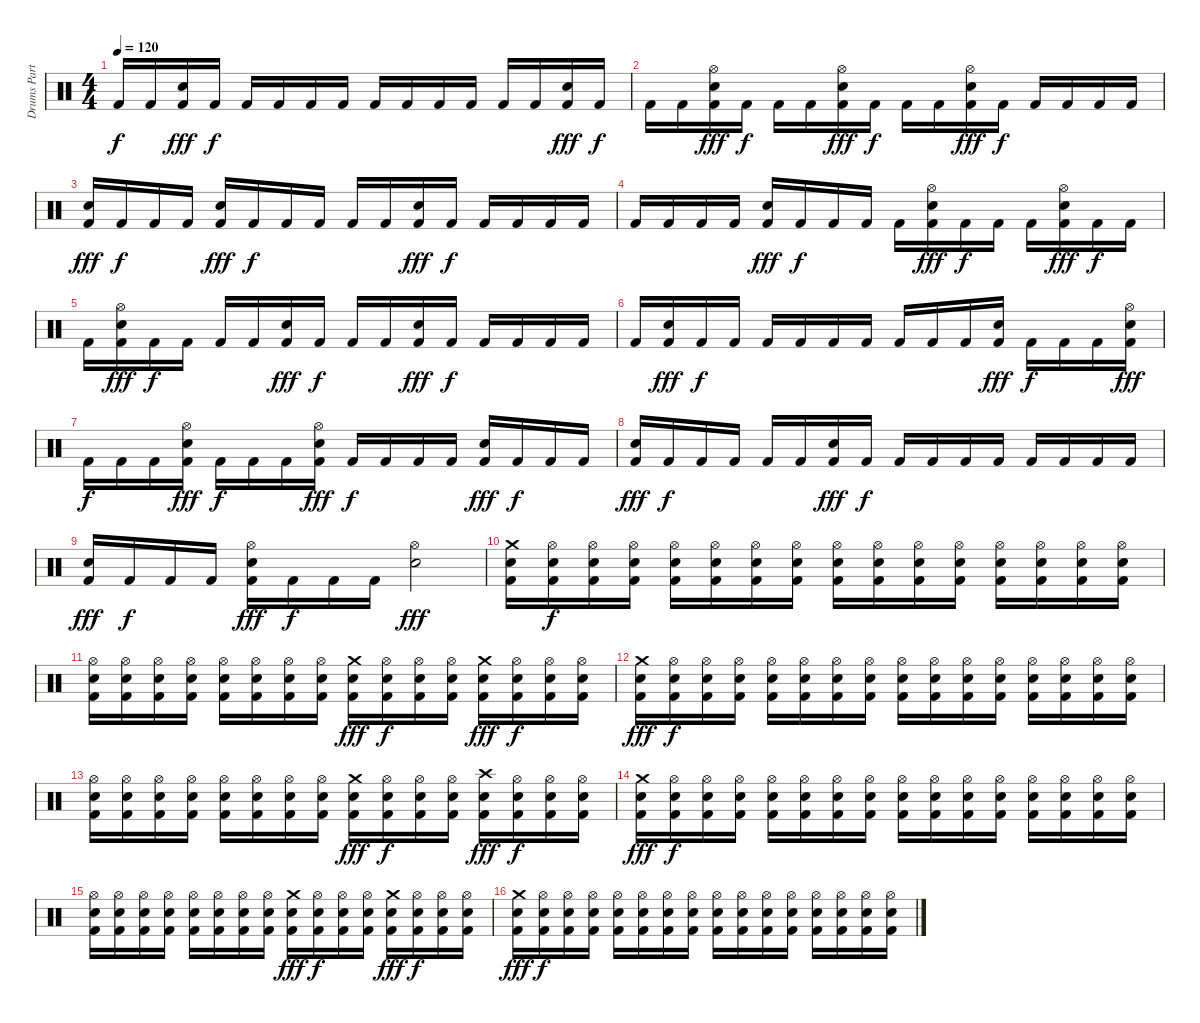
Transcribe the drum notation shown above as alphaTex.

\track ("Drums Part" "Drums Part") {instrument percussion}
\staff {score}
\articulation defaults
\ts (4 4)
\tempo 120
\clef neutral
\ks c "Kick (hit) 2".16{dy f} "Kick (hit) 2".16
("Electric Snare (hit)" "Kick (hit) 2").16{dy fff} "Kick (hit) 2".16{dy f} "Kick (hit) 2".16 "Kick (hit) 2".16 "Kick (hit) 2".16 "Kick (hit) 2".16 "Kick (hit) 2".16 "Kick (hit) 2".16 "Kick (hit) 2".16 "Kick (hit) 2".16 "Kick (hit) 2".16 "Kick (hit) 2".16 ("Electric Snare (hit)" "Kick (hit) 2").16{dy fff} "Kick (hit) 2".16{dy f} |
"Kick (hit) 2".16 "Kick (hit) 2".16 ("Hi-Hat (open)" "Electric Snare (hit)" "Kick (hit) 2").16{dy fff} "Kick (hit) 2".16{dy f} "Kick (hit) 2".16 "Kick (hit) 2".16 ("Hi-Hat (open)" "Electric Snare (hit)" "Kick (hit) 2").16{dy fff} "Kick (hit) 2".16{dy f} "Kick (hit) 2".16 "Kick (hit) 2".16 ("Hi-Hat (open)" "Electric Snare (hit)" "Kick (hit) 2").16{dy fff} "Kick (hit) 2".16{dy f} "Kick (hit) 2".16 "Kick (hit) 2".16 "Kick (hit) 2".16 "Kick (hit) 2".16 |
("Electric Snare (hit)" "Kick (hit) 2").16{dy fff} "Kick (hit) 2".16{dy f} "Kick (hit) 2".16 "Kick (hit) 2".16 ("Electric Snare (hit)" "Kick (hit) 2").16{dy fff} "Kick (hit) 2".16{dy f} "Kick (hit) 2".16 "Kick (hit) 2".16 "Kick (hit) 2".16 "Kick (hit) 2".16 ("Electric Snare (hit)" "Kick (hit) 2").16{dy fff} "Kick (hit) 2".16{dy f} "Kick (hit) 2".16 "Kick (hit) 2".16 "Kick (hit) 2".16 "Kick (hit) 2".16 |
"Kick (hit) 2".16 "Kick (hit) 2".16 "Kick (hit) 2".16 "Kick (hit) 2".16 ("Electric Snare (hit)" "Kick (hit) 2").16{dy fff} "Kick (hit) 2".16{dy f} "Kick (hit) 2".16 "Kick (hit) 2".16 "Kick (hit) 2".16 ("Hi-Hat (open)" "Electric Snare (hit)" "Kick (hit) 2").16{dy fff} "Kick (hit) 2".16{dy f} "Kick (hit) 2".16 "Kick (hit) 2".16 ("Hi-Hat (open)" "Electric Snare (hit)" "Kick (hit) 2").16{dy fff} "Kick (hit) 2".16{dy f} "Kick (hit) 2".16 |
"Kick (hit) 2".16 ("Hi-Hat (open)" "Electric Snare (hit)" "Kick (hit) 2").16{dy fff} "Kick (hit) 2".16{dy f} "Kick (hit) 2".16 "Kick (hit) 2".16 "Kick (hit) 2".16 ("Electric Snare (hit)" "Kick (hit) 2").16{dy fff} "Kick (hit) 2".16{dy f} "Kick (hit) 2".16 "Kick (hit) 2".16 ("Electric Snare (hit)" "Kick (hit) 2").16{dy fff} "Kick (hit) 2".16{dy f} "Kick (hit) 2".16 "Kick (hit) 2".16 "Kick (hit) 2".16 "Kick (hit) 2".16 |
"Kick (hit) 2".16 ("Electric Snare (hit)" "Kick (hit) 2").16{dy fff} "Kick (hit) 2".16{dy f} "Kick (hit) 2".16 "Kick (hit) 2".16 "Kick (hit) 2".16 "Kick (hit) 2".16 "Kick (hit) 2".16 "Kick (hit) 2".16 "Kick (hit) 2".16 "Kick (hit) 2".16 ("Electric Snare (hit)" "Kick (hit) 2").16{dy fff} "Kick (hit) 2".16{dy f} "Kick (hit) 2".16 "Kick (hit) 2".16 ("Hi-Hat (open)" "Electric Snare (hit)" "Kick (hit) 2").16{dy fff} |
"Kick (hit) 2".16{dy f} "Kick (hit) 2".16 "Kick (hit) 2".16 ("Hi-Hat (open)" "Electric Snare (hit)" "Kick (hit) 2").16{dy fff} "Kick (hit) 2".16{dy f} "Kick (hit) 2".16 "Kick (hit) 2".16 ("Hi-Hat (open)" "Electric Snare (hit)" "Kick (hit) 2").16{dy fff} "Kick (hit) 2".16{dy f} "Kick (hit) 2".16 "Kick (hit) 2".16 "Kick (hit) 2".16 ("Electric Snare (hit)" "Kick (hit) 2").16{dy fff} "Kick (hit) 2".16{dy f} "Kick (hit) 2".16 "Kick (hit) 2".16 |
("Electric Snare (hit)" "Kick (hit) 2").16{dy fff} "Kick (hit) 2".16{dy f} "Kick (hit) 2".16 "Kick (hit) 2".16 "Kick (hit) 2".16 "Kick (hit) 2".16 ("Electric Snare (hit)" "Kick (hit) 2").16{dy fff} "Kick (hit) 2".16{dy f} "Kick (hit) 2".16 "Kick (hit) 2".16 "Kick (hit) 2".16 "Kick (hit) 2".16 "Kick (hit) 2".16 "Kick (hit) 2".16 "Kick (hit) 2".16 "Kick (hit) 2".16 |
("Electric Snare (hit)" "Kick (hit) 2").16{dy fff} "Kick (hit) 2".16{dy f} "Kick (hit) 2".16 "Kick (hit) 2".16 ("Hi-Hat (open)" "Electric Snare (hit)" "Kick (hit) 2").16{dy fff} "Kick (hit) 2".16{dy f} "Kick (hit) 2".16 "Kick (hit) 2".16 ("Hi-Hat (open)" "Electric Snare (hit)").2{dy fff} |
("Crash medium (hit)" "Electric Snare (hit)" "Kick (hit) 2").16 ("Hi-Hat (open)" "Electric Snare (hit)" "Kick (hit) 2").16{dy f} ("Hi-Hat (open)" "Electric Snare (hit)" "Kick (hit) 2").16 ("Hi-Hat (open)" "Electric Snare (hit)" "Kick (hit) 2").16 ("Hi-Hat (open)" "Electric Snare (hit)" "Kick (hit) 2").16 ("Hi-Hat (open)" "Electric Snare (hit)" "Kick (hit) 2").16 ("Hi-Hat (open)" "Electric Snare (hit)" "Kick (hit) 2").16 ("Hi-Hat (open)" "Electric Snare (hit)" "Kick (hit) 2").16 ("Hi-Hat (open)" "Electric Snare (hit)" "Kick (hit) 2").16 ("Hi-Hat (open)" "Electric Snare (hit)" "Kick (hit) 2").16 ("Hi-Hat (open)" "Electric Snare (hit)" "Kick (hit) 2").16 ("Hi-Hat (open)" "Electric Snare (hit)" "Kick (hit) 2").16 ("Hi-Hat (open)" "Electric Snare (hit)" "Kick (hit) 2").16 ("Hi-Hat (open)" "Electric Snare (hit)" "Kick (hit) 2").16 ("Hi-Hat (open)" "Electric Snare (hit)" "Kick (hit) 2").16 ("Hi-Hat (open)" "Electric Snare (hit)" "Kick (hit) 2").16 |
("Hi-Hat (open)" "Electric Snare (hit)" "Kick (hit) 2").16 ("Hi-Hat (open)" "Electric Snare (hit)" "Kick (hit) 2").16 ("Hi-Hat (open)" "Electric Snare (hit)" "Kick (hit) 2").16 ("Hi-Hat (open)" "Electric Snare (hit)" "Kick (hit) 2").16 ("Hi-Hat (open)" "Electric Snare (hit)" "Kick (hit) 2").16 ("Hi-Hat (open)" "Electric Snare (hit)" "Kick (hit) 2").16 ("Hi-Hat (open)" "Electric Snare (hit)" "Kick (hit) 2").16 ("Hi-Hat (open)" "Electric Snare (hit)" "Kick (hit) 2").16 ("Crash medium (hit)" "Electric Snare (hit)" "Kick (hit) 2").16{dy fff} ("Hi-Hat (open)" "Electric Snare (hit)" "Kick (hit) 2").16{dy f} ("Hi-Hat (open)" "Electric Snare (hit)" "Kick (hit) 2").16 ("Hi-Hat (open)" "Electric Snare (hit)" "Kick (hit) 2").16 ("Crash medium (hit)" "Electric Snare (hit)" "Kick (hit) 2").16{dy fff} ("Hi-Hat (open)" "Electric Snare (hit)" "Kick (hit) 2").16{dy f} ("Hi-Hat (open)" "Electric Snare (hit)" "Kick (hit) 2").16 ("Hi-Hat (open)" "Electric Snare (hit)" "Kick (hit) 2").16 |
("Crash medium (hit)" "Electric Snare (hit)" "Kick (hit) 2").16{dy fff} ("Hi-Hat (open)" "Electric Snare (hit)" "Kick (hit) 2").16{dy f} ("Hi-Hat (open)" "Electric Snare (hit)" "Kick (hit) 2").16 ("Hi-Hat (open)" "Electric Snare (hit)" "Kick (hit) 2").16 ("Hi-Hat (open)" "Electric Snare (hit)" "Kick (hit) 2").16 ("Hi-Hat (open)" "Electric Snare (hit)" "Kick (hit) 2").16 ("Hi-Hat (open)" "Electric Snare (hit)" "Kick (hit) 2").16 ("Hi-Hat (open)" "Electric Snare (hit)" "Kick (hit) 2").16 ("Hi-Hat (open)" "Electric Snare (hit)" "Kick (hit) 2").16 ("Hi-Hat (open)" "Electric Snare (hit)" "Kick (hit) 2").16 ("Hi-Hat (open)" "Electric Snare (hit)" "Kick (hit) 2").16 ("Hi-Hat (open)" "Electric Snare (hit)" "Kick (hit) 2").16 ("Hi-Hat (open)" "Electric Snare (hit)" "Kick (hit) 2").16 ("Hi-Hat (open)" "Electric Snare (hit)" "Kick (hit) 2").16 ("Hi-Hat (open)" "Electric Snare (hit)" "Kick (hit) 2").16 ("Hi-Hat (open)" "Electric Snare (hit)" "Kick (hit) 2").16 |
("Hi-Hat (open)" "Electric Snare (hit)" "Kick (hit) 2").16 ("Hi-Hat (open)" "Electric Snare (hit)" "Kick (hit) 2").16 ("Hi-Hat (open)" "Electric Snare (hit)" "Kick (hit) 2").16 ("Hi-Hat (open)" "Electric Snare (hit)" "Kick (hit) 2").16 ("Hi-Hat (open)" "Electric Snare (hit)" "Kick (hit) 2").16 ("Hi-Hat (open)" "Electric Snare (hit)" "Kick (hit) 2").16 ("Hi-Hat (open)" "Electric Snare (hit)" "Kick (hit) 2").16 ("Hi-Hat (open)" "Electric Snare (hit)" "Kick (hit) 2").16 ("Crash medium (hit)" "Electric Snare (hit)" "Kick (hit) 2").16{dy fff} ("Hi-Hat (open)" "Electric Snare (hit)" "Kick (hit) 2").16{dy f} ("Hi-Hat (open)" "Electric Snare (hit)" "Kick (hit) 2").16 ("Hi-Hat (open)" "Electric Snare (hit)" "Kick (hit) 2").16 ("Crash high (hit)" "Electric Snare (hit)" "Kick (hit) 2").16{dy fff} ("Hi-Hat (open)" "Electric Snare (hit)" "Kick (hit) 2").16{dy f} ("Hi-Hat (open)" "Electric Snare (hit)" "Kick (hit) 2").16 ("Hi-Hat (open)" "Electric Snare (hit)" "Kick (hit) 2").16 |
("Crash medium (hit)" "Electric Snare (hit)" "Kick (hit) 2").16{dy fff} ("Hi-Hat (open)" "Electric Snare (hit)" "Kick (hit) 2").16{dy f} ("Hi-Hat (open)" "Electric Snare (hit)" "Kick (hit) 2").16 ("Hi-Hat (open)" "Electric Snare (hit)" "Kick (hit) 2").16 ("Hi-Hat (open)" "Electric Snare (hit)" "Kick (hit) 2").16 ("Hi-Hat (open)" "Electric Snare (hit)" "Kick (hit) 2").16 ("Hi-Hat (open)" "Electric Snare (hit)" "Kick (hit) 2").16 ("Hi-Hat (open)" "Electric Snare (hit)" "Kick (hit) 2").16 ("Hi-Hat (open)" "Electric Snare (hit)" "Kick (hit) 2").16 ("Hi-Hat (open)" "Electric Snare (hit)" "Kick (hit) 2").16 ("Hi-Hat (open)" "Electric Snare (hit)" "Kick (hit) 2").16 ("Hi-Hat (open)" "Electric Snare (hit)" "Kick (hit) 2").16 ("Hi-Hat (open)" "Electric Snare (hit)" "Kick (hit) 2").16 ("Hi-Hat (open)" "Electric Snare (hit)" "Kick (hit) 2").16 ("Hi-Hat (open)" "Electric Snare (hit)" "Kick (hit) 2").16 ("Hi-Hat (open)" "Electric Snare (hit)" "Kick (hit) 2").16 |
("Hi-Hat (open)" "Electric Snare (hit)" "Kick (hit) 2").16 ("Hi-Hat (open)" "Electric Snare (hit)" "Kick (hit) 2").16 ("Hi-Hat (open)" "Electric Snare (hit)" "Kick (hit) 2").16 ("Hi-Hat (open)" "Electric Snare (hit)" "Kick (hit) 2").16 ("Hi-Hat (open)" "Electric Snare (hit)" "Kick (hit) 2").16 ("Hi-Hat (open)" "Electric Snare (hit)" "Kick (hit) 2").16 ("Hi-Hat (open)" "Electric Snare (hit)" "Kick (hit) 2").16 ("Hi-Hat (open)" "Electric Snare (hit)" "Kick (hit) 2").16 ("Crash medium (hit)" "Electric Snare (hit)" "Kick (hit) 2").16{dy fff} ("Hi-Hat (open)" "Electric Snare (hit)" "Kick (hit) 2").16{dy f} ("Hi-Hat (open)" "Electric Snare (hit)" "Kick (hit) 2").16 ("Hi-Hat (open)" "Electric Snare (hit)" "Kick (hit) 2").16 ("Crash medium (hit)" "Electric Snare (hit)" "Kick (hit) 2").16{dy fff} ("Hi-Hat (open)" "Electric Snare (hit)" "Kick (hit) 2").16{dy f} ("Hi-Hat (open)" "Electric Snare (hit)" "Kick (hit) 2").16 ("Hi-Hat (open)" "Electric Snare (hit)" "Kick (hit) 2").16 |
("Crash medium (hit)" "Electric Snare (hit)" "Kick (hit) 2").16{dy fff} ("Hi-Hat (open)" "Electric Snare (hit)" "Kick (hit) 2").16{dy f} ("Hi-Hat (open)" "Electric Snare (hit)" "Kick (hit) 2").16 ("Hi-Hat (open)" "Electric Snare (hit)" "Kick (hit) 2").16 ("Hi-Hat (open)" "Electric Snare (hit)" "Kick (hit) 2").16 ("Hi-Hat (open)" "Electric Snare (hit)" "Kick (hit) 2").16 ("Hi-Hat (open)" "Electric Snare (hit)" "Kick (hit) 2").16 ("Hi-Hat (open)" "Electric Snare (hit)" "Kick (hit) 2").16 ("Hi-Hat (open)" "Electric Snare (hit)" "Kick (hit) 2").16 ("Hi-Hat (open)" "Electric Snare (hit)" "Kick (hit) 2").16 ("Hi-Hat (open)" "Electric Snare (hit)" "Kick (hit) 2").16 ("Hi-Hat (open)" "Electric Snare (hit)" "Kick (hit) 2").16 ("Hi-Hat (open)" "Electric Snare (hit)" "Kick (hit) 2").16 ("Hi-Hat (open)" "Electric Snare (hit)" "Kick (hit) 2").16 ("Hi-Hat (open)" "Electric Snare (hit)" "Kick (hit) 2").16 ("Hi-Hat (open)" "Electric Snare (hit)" "Kick (hit) 2").16
